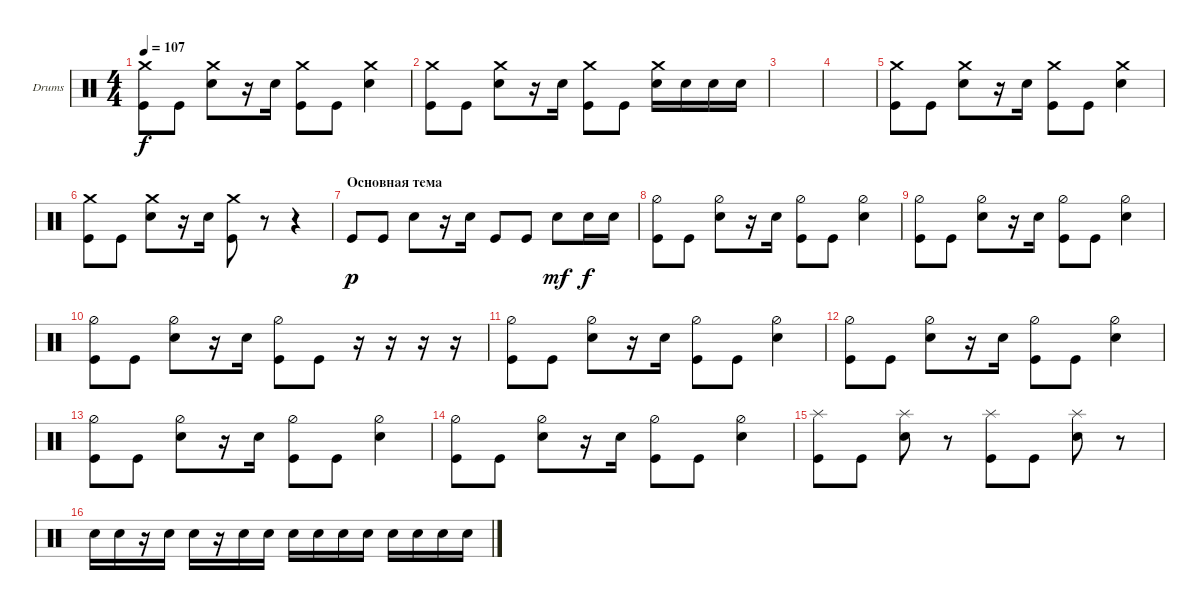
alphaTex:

\defaultSystemsLayout 4
\bracketExtendMode groupsimilarinstruments
\firstSystemTrackNameOrientation horizontal
\otherSystemsTrackNameOrientation horizontal
\track ("Drumkit" "Drums") {instrument percussion}
\staff {score}
\articulation defaults
\ts (4 4)
\tempo 107
\clef neutral
\ks c
("Kick (hit)" "Crash medium (hit)").8{dy f} "Kick (hit)".8 ("Snare (hit) 2" "Crash medium (hit)").8 r.16 "Snare (hit) 2".16 ("Kick (hit)" "Crash medium (hit)").8 "Kick (hit)".8 ("Snare (hit) 2" "Crash medium (hit)").4 |
("Kick (hit)" "Crash medium (hit)").8 "Kick (hit)".8 ("Snare (hit) 2" "Crash medium (hit)").8 r.16 "Snare (hit) 2".16 ("Kick (hit)" "Crash medium (hit)").8 "Kick (hit)".8 ("Snare (hit) 2" "Crash medium (hit)").16 "Snare (hit) 2".16 "Snare (hit) 2".16 "Snare (hit) 2".16 |
|
|
("Kick (hit)" "Crash medium (hit)").8 "Kick (hit)".8 ("Snare (hit) 2" "Crash medium (hit)").8 r.16 "Snare (hit) 2".16 ("Kick (hit)" "Crash medium (hit)").8 "Kick (hit)".8 ("Snare (hit) 2" "Crash medium (hit)").4 |
("Kick (hit)" "Crash medium (hit)").8 "Kick (hit)".8 ("Snare (hit) 2" "Crash medium (hit)").8 r.16 "Snare (hit) 2".16 ("Kick (hit)" "Crash medium (hit)").8 r.8 r.4 |
\section ("" "Основная тема")
"Kick (hit)".8{dy p} "Kick (hit)".8 "Snare (hit) 2".8 r.16 "Snare (hit) 2".16 "Kick (hit)".8 "Kick (hit)".8 "Snare (hit) 2".8{dy mf} "Snare (hit) 2".16{dy f} "Snare (hit) 2".16 |
("Kick (hit)" "Hi-Hat (half)").8 "Kick (hit)".8 ("Snare (hit) 2" "Hi-Hat (half)").8 r.16 "Snare (hit) 2".16 ("Kick (hit)" "Hi-Hat (half)").8 "Kick (hit)".8 ("Snare (hit) 2" "Hi-Hat (half)").4 |
("Kick (hit)" "Hi-Hat (half)").8 "Kick (hit)".8 ("Snare (hit) 2" "Hi-Hat (half)").8 r.16 "Snare (hit) 2".16 ("Kick (hit)" "Hi-Hat (half)").8 "Kick (hit)".8 ("Snare (hit) 2" "Hi-Hat (half)").4 |
("Kick (hit)" "Hi-Hat (half)").8 "Kick (hit)".8 ("Snare (hit) 2" "Hi-Hat (half)").8 r.16 "Snare (hit) 2".16 ("Kick (hit)" "Hi-Hat (half)").8 "Kick (hit)".8 r.16 r.16 r.16 r.16 |
("Kick (hit)" "Hi-Hat (half)").8 "Kick (hit)".8 ("Snare (hit) 2" "Hi-Hat (half)").8 r.16 "Snare (hit) 2".16 ("Kick (hit)" "Hi-Hat (half)").8 "Kick (hit)".8 ("Snare (hit) 2" "Hi-Hat (half)").4 |
("Kick (hit)" "Hi-Hat (half)").8 "Kick (hit)".8 ("Snare (hit) 2" "Hi-Hat (half)").8 r.16 "Snare (hit) 2".16 ("Kick (hit)" "Hi-Hat (half)").8 "Kick (hit)".8 ("Snare (hit) 2" "Hi-Hat (half)").4 |
("Kick (hit)" "Hi-Hat (half)").8 "Kick (hit)".8 ("Snare (hit) 2" "Hi-Hat (half)").8 r.16 "Snare (hit) 2".16 ("Kick (hit)" "Hi-Hat (half)").8 "Kick (hit)".8 ("Snare (hit) 2" "Hi-Hat (half)").4 |
("Kick (hit)" "Hi-Hat (half)").8 "Kick (hit)".8 ("Snare (hit) 2" "Hi-Hat (half)").8 r.16 "Snare (hit) 2".16 ("Kick (hit)" "Hi-Hat (half)").8 "Kick (hit)".8 ("Snare (hit) 2" "Hi-Hat (half)").4 |
("Kick (hit)" "Splash (hit)").8 "Kick (hit)".8 ("Snare (hit) 2" "Splash (hit)").8 r.8 ("Kick (hit)" "Splash (hit)").8 "Kick (hit)".8 ("Snare (hit) 2" "Splash (hit)").8 r.8 |
"Snare (hit) 2".16 "Snare (hit) 2".16 r.16 "Snare (hit) 2".16 "Snare (hit) 2".16 r.16 "Snare (hit) 2".16 "Snare (hit) 2".16 "Snare (hit) 2".16 "Snare (hit) 2".16 "Snare (hit) 2".16 "Snare (hit) 2".16 "Snare (hit) 2".16 "Snare (hit) 2".16 "Snare (hit) 2".16 "Snare (hit) 2".16
